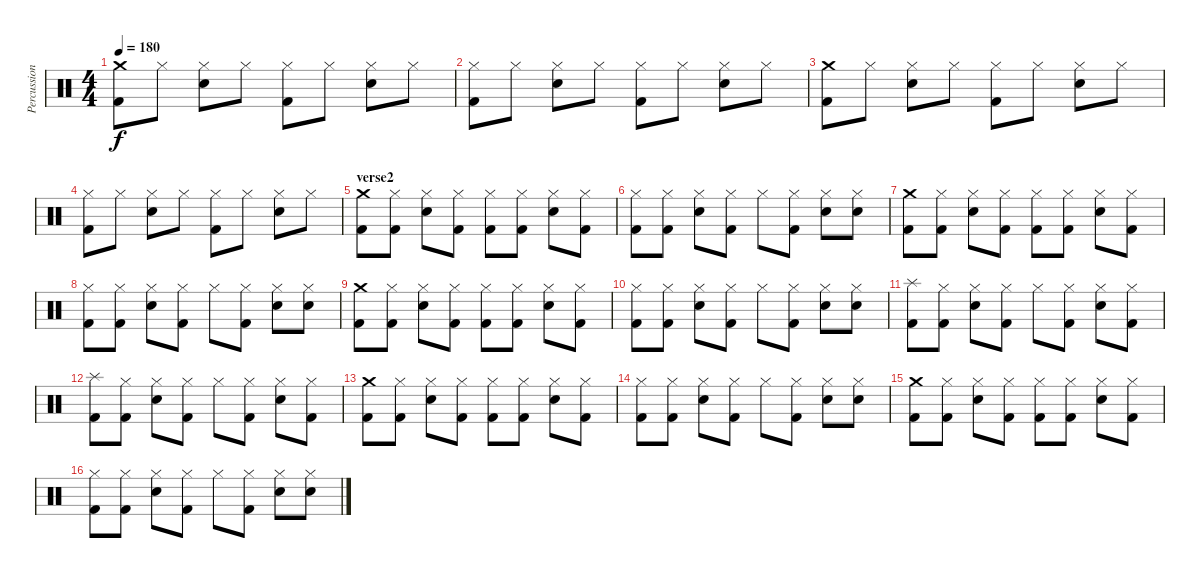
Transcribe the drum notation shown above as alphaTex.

\track ("Percussion" "Percussion") {instrument percussion}
\staff {score}
\articulation defaults
\ts (4 4)
\tempo 180
\clef neutral
\ks c
("Crash medium (hit)" "Kick (hit) 2").8{dy f} "Hi-Hat (closed)".8 ("Hi-Hat (closed)" "Electric Snare (hit)").8 "Hi-Hat (closed)".8 ("Hi-Hat (closed)" "Kick (hit) 2").8 "Hi-Hat (closed)".8 ("Hi-Hat (closed)" "Electric Snare (hit)").8 "Hi-Hat (closed)".8 |
("Hi-Hat (closed)" "Kick (hit) 2").8 "Hi-Hat (closed)".8 ("Hi-Hat (closed)" "Electric Snare (hit)").8 "Hi-Hat (closed)".8 ("Hi-Hat (closed)" "Kick (hit) 2").8 "Hi-Hat (closed)".8 ("Hi-Hat (closed)" "Electric Snare (hit)").8 "Hi-Hat (closed)".8 |
("Crash medium (hit)" "Kick (hit) 2").8 "Hi-Hat (closed)".8 ("Hi-Hat (closed)" "Electric Snare (hit)").8 "Hi-Hat (closed)".8 ("Hi-Hat (closed)" "Kick (hit) 2").8 "Hi-Hat (closed)".8 ("Hi-Hat (closed)" "Electric Snare (hit)").8 "Hi-Hat (closed)".8 |
("Hi-Hat (closed)" "Kick (hit) 2").8 "Hi-Hat (closed)".8 ("Hi-Hat (closed)" "Electric Snare (hit)").8 "Hi-Hat (closed)".8 ("Hi-Hat (closed)" "Kick (hit) 2").8 "Hi-Hat (closed)".8 ("Hi-Hat (closed)" "Electric Snare (hit)").8 "Hi-Hat (closed)".8 |
\section ("" "verse2")
("Crash medium (hit)" "Kick (hit) 2").8 ("Hi-Hat (closed)" "Kick (hit) 2").8 ("Hi-Hat (closed)" "Electric Snare (hit)").8 ("Hi-Hat (closed)" "Kick (hit) 2").8 ("Hi-Hat (closed)" "Kick (hit) 2").8 ("Hi-Hat (closed)" "Kick (hit) 2").8 ("Hi-Hat (closed)" "Electric Snare (hit)").8 ("Hi-Hat (closed)" "Kick (hit) 2").8 |
("Hi-Hat (closed)" "Kick (hit) 2").8 ("Hi-Hat (closed)" "Kick (hit) 2").8 ("Hi-Hat (closed)" "Electric Snare (hit)").8 ("Hi-Hat (closed)" "Kick (hit) 2").8 "Hi-Hat (closed)".8 ("Hi-Hat (closed)" "Kick (hit) 2").8 ("Hi-Hat (closed)" "Electric Snare (hit)").8 ("Hi-Hat (closed)" "Electric Snare (hit)").8 |
("Crash medium (hit)" "Kick (hit) 2").8 ("Hi-Hat (closed)" "Kick (hit) 2").8 ("Hi-Hat (closed)" "Electric Snare (hit)").8 ("Hi-Hat (closed)" "Kick (hit) 2").8 ("Hi-Hat (closed)" "Kick (hit) 2").8 ("Hi-Hat (closed)" "Kick (hit) 2").8 ("Hi-Hat (closed)" "Electric Snare (hit)").8 ("Hi-Hat (closed)" "Kick (hit) 2").8 |
("Hi-Hat (closed)" "Kick (hit) 2").8 ("Hi-Hat (closed)" "Kick (hit) 2").8 ("Hi-Hat (closed)" "Electric Snare (hit)").8 ("Hi-Hat (closed)" "Kick (hit) 2").8 "Hi-Hat (closed)".8 ("Hi-Hat (closed)" "Kick (hit) 2").8 ("Hi-Hat (closed)" "Electric Snare (hit)").8 ("Hi-Hat (closed)" "Electric Snare (hit)").8 |
("Crash medium (hit)" "Kick (hit) 2").8 ("Hi-Hat (closed)" "Kick (hit) 2").8 ("Hi-Hat (closed)" "Electric Snare (hit)").8 ("Hi-Hat (closed)" "Kick (hit) 2").8 ("Hi-Hat (closed)" "Kick (hit) 2").8 ("Hi-Hat (closed)" "Kick (hit) 2").8 ("Hi-Hat (closed)" "Electric Snare (hit)").8 ("Hi-Hat (closed)" "Kick (hit) 2").8 |
("Hi-Hat (closed)" "Kick (hit) 2").8 ("Hi-Hat (closed)" "Kick (hit) 2").8 ("Hi-Hat (closed)" "Electric Snare (hit)").8 ("Hi-Hat (closed)" "Kick (hit) 2").8 "Hi-Hat (closed)".8 ("Hi-Hat (closed)" "Kick (hit) 2").8 ("Hi-Hat (closed)" "Electric Snare (hit)").8 ("Hi-Hat (closed)" "Electric Snare (hit)").8 |
("Splash (hit)" "Kick (hit) 2").8 ("Hi-Hat (closed)" "Kick (hit) 2").8 ("Hi-Hat (closed)" "Electric Snare (hit)").8 ("Hi-Hat (closed)" "Kick (hit) 2").8 "Hi-Hat (closed)".8 ("Hi-Hat (closed)" "Kick (hit) 2").8 ("Hi-Hat (closed)" "Electric Snare (hit)").8 ("Hi-Hat (closed)" "Kick (hit) 2").8 |
("Splash (hit)" "Kick (hit) 2").8 ("Hi-Hat (closed)" "Kick (hit) 2").8 ("Hi-Hat (closed)" "Electric Snare (hit)").8 ("Hi-Hat (closed)" "Kick (hit) 2").8 "Hi-Hat (closed)".8 ("Hi-Hat (closed)" "Kick (hit) 2").8 ("Hi-Hat (closed)" "Electric Snare (hit)").8 ("Hi-Hat (closed)" "Kick (hit) 2").8 |
("Crash medium (hit)" "Kick (hit) 2").8 ("Hi-Hat (closed)" "Kick (hit) 2").8 ("Hi-Hat (closed)" "Electric Snare (hit)").8 ("Hi-Hat (closed)" "Kick (hit) 2").8 ("Hi-Hat (closed)" "Kick (hit) 2").8 ("Hi-Hat (closed)" "Kick (hit) 2").8 ("Hi-Hat (closed)" "Electric Snare (hit)").8 ("Hi-Hat (closed)" "Kick (hit) 2").8 |
("Hi-Hat (closed)" "Kick (hit) 2").8 ("Hi-Hat (closed)" "Kick (hit) 2").8 ("Hi-Hat (closed)" "Electric Snare (hit)").8 ("Hi-Hat (closed)" "Kick (hit) 2").8 "Hi-Hat (closed)".8 ("Hi-Hat (closed)" "Kick (hit) 2").8 ("Hi-Hat (closed)" "Electric Snare (hit)").8 ("Hi-Hat (closed)" "Electric Snare (hit)").8 |
("Crash medium (hit)" "Kick (hit) 2").8 ("Hi-Hat (closed)" "Kick (hit) 2").8 ("Hi-Hat (closed)" "Electric Snare (hit)").8 ("Hi-Hat (closed)" "Kick (hit) 2").8 ("Hi-Hat (closed)" "Kick (hit) 2").8 ("Hi-Hat (closed)" "Kick (hit) 2").8 ("Hi-Hat (closed)" "Electric Snare (hit)").8 ("Hi-Hat (closed)" "Kick (hit) 2").8 |
("Hi-Hat (closed)" "Kick (hit) 2").8 ("Hi-Hat (closed)" "Kick (hit) 2").8 ("Hi-Hat (closed)" "Electric Snare (hit)").8 ("Hi-Hat (closed)" "Kick (hit) 2").8 "Hi-Hat (closed)".8 ("Hi-Hat (closed)" "Kick (hit) 2").8 ("Hi-Hat (closed)" "Electric Snare (hit)").8 ("Hi-Hat (closed)" "Electric Snare (hit)").8
